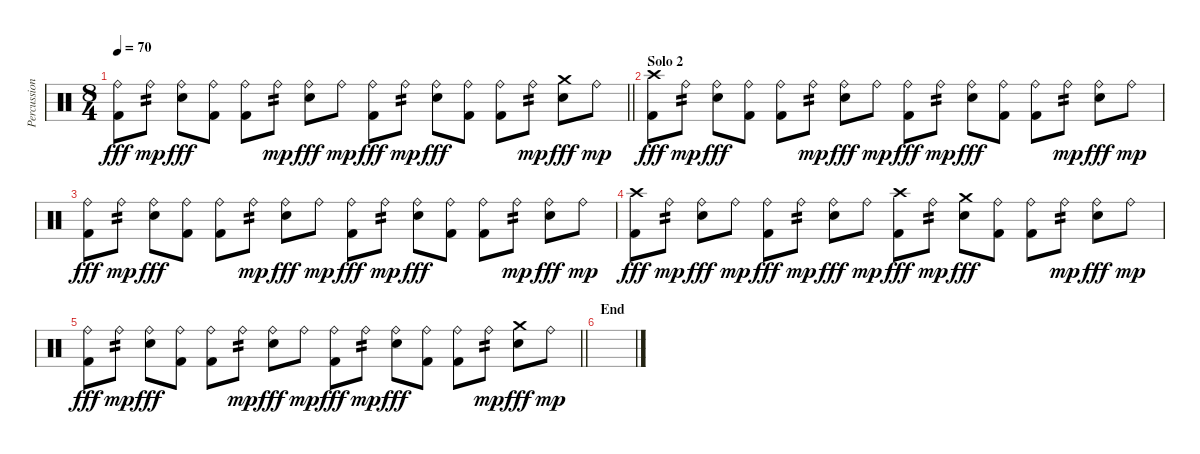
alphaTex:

\track ("Percussion" "Percussion") {instrument percussion}
\staff {score}
\articulation defaults
\ts (8 4)
\tempo 70
\clef neutral
\barLineRight lightlight
\ks c
("Ride (bell)" "Kick (hit) 2").8{dy fff} "Ride (bell)".8{tp 2 dy mp} ("Ride (bell)" "Electric Snare (hit)").8{dy fff} ("Ride (bell)" "Kick (hit) 2").8 ("Ride (bell)" "Kick (hit) 2").8 "Ride (bell)".8{tp 2 dy mp} ("Ride (bell)" "Electric Snare (hit)").8{dy fff} "Ride (bell)".8{dy mp} ("Ride (bell)" "Kick (hit) 2").8{dy fff} "Ride (bell)".8{tp 2 dy mp} ("Ride (bell)" "Electric Snare (hit)").8{dy fff} ("Ride (bell)" "Kick (hit) 2").8 ("Ride (bell)" "Kick (hit) 2").8 "Ride (bell)".8{tp 2 dy mp} ("Crash medium (hit)" "Electric Snare (hit)").8{dy fff} "Ride (bell)".8{dy mp} |
\section ("" "Solo 2")
("Crash high (hit)" "Kick (hit) 2").8{dy fff} "Ride (bell)".8{tp 2 dy mp} ("Ride (bell)" "Electric Snare (hit)").8{dy fff} ("Ride (bell)" "Kick (hit) 2").8 ("Ride (bell)" "Kick (hit) 2").8 "Ride (bell)".8{tp 2 dy mp} ("Ride (bell)" "Electric Snare (hit)").8{dy fff} "Ride (bell)".8{dy mp} ("Ride (bell)" "Kick (hit) 2").8{dy fff} "Ride (bell)".8{tp 2 dy mp} ("Ride (bell)" "Electric Snare (hit)").8{dy fff} ("Ride (bell)" "Kick (hit) 2").8 ("Ride (bell)" "Kick (hit) 2").8 "Ride (bell)".8{tp 2 dy mp} ("Ride (bell)" "Electric Snare (hit)").8{dy fff} "Ride (bell)".8{dy mp} |
("Ride (bell)" "Kick (hit) 2").8{dy fff} "Ride (bell)".8{tp 2 dy mp} ("Ride (bell)" "Electric Snare (hit)").8{dy fff} ("Ride (bell)" "Kick (hit) 2").8 ("Ride (bell)" "Kick (hit) 2").8 "Ride (bell)".8{tp 2 dy mp} ("Ride (bell)" "Electric Snare (hit)").8{dy fff} "Ride (bell)".8{dy mp} ("Ride (bell)" "Kick (hit) 2").8{dy fff} "Ride (bell)".8{tp 2 dy mp} ("Ride (bell)" "Electric Snare (hit)").8{dy fff} ("Ride (bell)" "Kick (hit) 2").8 ("Ride (bell)" "Kick (hit) 2").8 "Ride (bell)".8{tp 2 dy mp} ("Ride (bell)" "Electric Snare (hit)").8{dy fff} "Ride (bell)".8{dy mp} |
("Crash high (hit)" "Kick (hit) 2").8{dy fff} "Ride (bell)".8{tp 2 dy mp} ("Ride (bell)" "Electric Snare (hit)").8{dy fff} "Ride (bell)".8{dy mp} ("Ride (bell)" "Kick (hit) 2").8{dy fff} "Ride (bell)".8{tp 2 dy mp} ("Ride (bell)" "Electric Snare (hit)").8{dy fff} "Ride (bell)".8{dy mp} ("Crash high (hit)" "Kick (hit) 2").8{dy fff} "Ride (bell)".8{tp 2 dy mp} ("Crash medium (hit)" "Electric Snare (hit)").8{dy fff} ("Ride (bell)" "Kick (hit) 2").8 ("Ride (bell)" "Kick (hit) 2").8 "Ride (bell)".8{tp 2 dy mp} ("Ride (bell)" "Electric Snare (hit)").8{dy fff} "Ride (bell)".8{dy mp} |
\barLineRight lightlight
("Ride (bell)" "Kick (hit) 2").8{dy fff} "Ride (bell)".8{tp 2 dy mp} ("Ride (bell)" "Electric Snare (hit)").8{dy fff} ("Ride (bell)" "Kick (hit) 2").8 ("Ride (bell)" "Kick (hit) 2").8 "Ride (bell)".8{tp 2 dy mp} ("Ride (bell)" "Electric Snare (hit)").8{dy fff} "Ride (bell)".8{dy mp} ("Ride (bell)" "Kick (hit) 2").8{dy fff} "Ride (bell)".8{tp 2 dy mp} ("Ride (bell)" "Electric Snare (hit)").8{dy fff} ("Ride (bell)" "Kick (hit) 2").8 ("Ride (bell)" "Kick (hit) 2").8 "Ride (bell)".8{tp 2 dy mp} ("Crash medium (hit)" "Electric Snare (hit)").8{dy fff} "Ride (bell)".8{dy mp} |
\section ("" "End")
